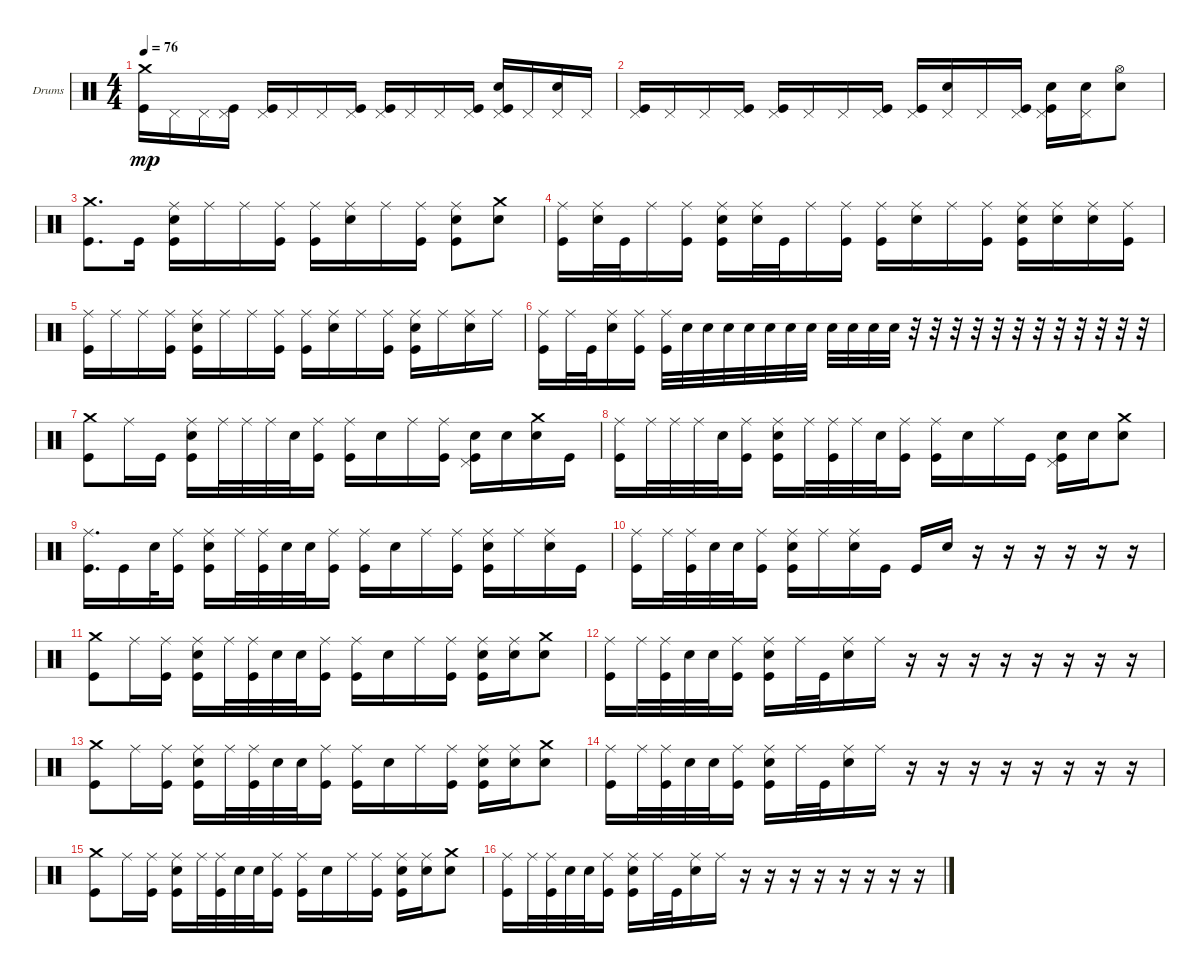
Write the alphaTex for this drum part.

\bracketExtendMode groupsimilarinstruments
\firstSystemTrackNameOrientation horizontal
\otherSystemsTrackNameOrientation horizontal
\track ("Drumkit" "Drums") {instrument percussion}
\staff {score}
\articulation defaults
\ts (4 4)
\tempo 76
\clef neutral
\ks c
("Kick (hit)" "Crash medium (hit)").16{dy mp} "Pedal Hi-Hat (hit)".16 "Pedal Hi-Hat (hit)".16 ("Pedal Hi-Hat (hit)" "Kick (hit)").16 ("Pedal Hi-Hat (hit)" "Kick (hit)").16 "Pedal Hi-Hat (hit)".16 "Pedal Hi-Hat (hit)".16 ("Pedal Hi-Hat (hit)" "Kick (hit)").16 ("Pedal Hi-Hat (hit)" "Kick (hit)").16 "Pedal Hi-Hat (hit)".16 "Pedal Hi-Hat (hit)".16 ("Pedal Hi-Hat (hit)" "Kick (hit)").16 ("Pedal Hi-Hat (hit)" "Kick (hit)" "Snare (hit) 2").16 "Pedal Hi-Hat (hit)".16 ("Pedal Hi-Hat (hit)" "Snare (hit) 2").16 "Pedal Hi-Hat (hit)".16 |
("Kick (hit)" "Pedal Hi-Hat (hit)").16 "Pedal Hi-Hat (hit)".16 "Pedal Hi-Hat (hit)".16 ("Pedal Hi-Hat (hit)" "Kick (hit)").16 ("Pedal Hi-Hat (hit)" "Kick (hit)").16 "Pedal Hi-Hat (hit)".16 "Pedal Hi-Hat (hit)".16 ("Pedal Hi-Hat (hit)" "Kick (hit)").16 ("Pedal Hi-Hat (hit)" "Kick (hit)").16 ("Pedal Hi-Hat (hit)" "Snare (hit) 2").16 "Pedal Hi-Hat (hit)".16 ("Pedal Hi-Hat (hit)" "Kick (hit)").16 ("Pedal Hi-Hat (hit)" "Kick (hit)" "Snare (hit) 2").16 ("Pedal Hi-Hat (hit)" "Snare (hit) 2").16 ("Snare (hit) 2" "Hi-Hat (open)").8 |
("Kick (hit)" "Crash medium (hit)").8{d} "Kick (hit)".16 ("Kick (hit)" "Snare (hit) 2" "Ride (middle)").16 "Ride (middle)".16 "Ride (middle)".16 ("Kick (hit)" "Ride (middle)").16 ("Kick (hit)" "Ride (middle)").16 ("Snare (hit) 2" "Ride (middle)").16 "Ride (middle)".16 ("Kick (hit)" "Ride (middle)").16 ("Kick (hit)" "Snare (hit) 2" "Ride (middle)").8 ("Snare (hit) 2" "Crash medium (hit)").8 |
("Kick (hit)" "Ride (middle)").16 ("Snare (hit) 2" "Ride (middle)").32 "Kick (hit)".32 "Ride (middle)".16 ("Kick (hit)" "Ride (middle)").16 ("Kick (hit)" "Snare (hit) 2" "Ride (middle)").16 ("Snare (hit) 2" "Ride (middle)").32 "Kick (hit)".32 "Ride (middle)".16 ("Kick (hit)" "Ride (middle)").16 ("Kick (hit)" "Ride (middle)").16 ("Snare (hit) 2" "Ride (middle)").16 "Ride (middle)".16 ("Kick (hit)" "Ride (middle)").16 ("Kick (hit)" "Snare (hit) 2" "Ride (middle)").16 ("Snare (hit) 2" "Ride (middle)").16 ("Snare (hit) 2" "Ride (middle)").16 ("Kick (hit)" "Ride (middle)").16 |
("Kick (hit)" "Ride (middle)").16 "Ride (middle)".16 "Ride (middle)".16 ("Kick (hit)" "Ride (middle)").16 ("Kick (hit)" "Snare (hit) 2" "Ride (middle)").16 "Ride (middle)".16 "Ride (middle)".16 ("Kick (hit)" "Ride (middle)").16 ("Kick (hit)" "Ride (middle)").16 ("Snare (hit) 2" "Ride (middle)").16 "Ride (middle)".16 ("Kick (hit)" "Ride (middle)").16 ("Kick (hit)" "Snare (hit) 2" "Ride (middle)").16 "Ride (middle)".16 ("Snare (hit) 2" "Ride (middle)").16 "Ride (middle)".16 |
("Ride (middle)" "Kick (hit)").16 "Ride (middle)".32 "Kick (hit)".32 ("Ride (middle)" "Snare (hit) 2").16 ("Ride (middle)" "Kick (hit)").16 ("Kick (hit)" "Ride (middle)").32 "Snare (hit) 2".32 "Snare (hit) 2".32 "Snare (hit) 2".32 "Snare (hit) 2".32 "Snare (hit) 2".32 "Snare (hit) 2".32 "Snare (hit) 2".32 "Snare (hit) 2".32 "Snare (hit) 2".32 "Snare (hit) 2".32 "Snare (hit) 2".32 r.32 r.32 r.32 r.32 r.32 r.32 r.32 r.32 r.32 r.32 r.32 r.32 |
("Kick (hit)" "Crash medium (hit)").8 "Ride (middle)".16 "Kick (hit)".16 ("Kick (hit)" "Ride (middle)" "Snare (hit) 2").16 "Ride (middle)".32 "Ride (middle)".32 "Ride (middle)".32 "Snare (hit) 2".32 ("Kick (hit)" "Ride (middle)").16 ("Kick (hit)" "Ride (middle)").16 "Snare (hit) 2".16 "Ride (middle)".16 ("Kick (hit)" "Ride (middle)").16 ("Kick (hit)" "Snare (hit) 2" "Pedal Hi-Hat (hit)").16 "Snare (hit) 2".16 ("Snare (hit) 2" "Crash medium (hit)").16 "Kick (hit)".16 |
("Kick (hit)" "Ride (middle)").16 "Ride (middle)".32 "Ride (middle)".32 "Ride (middle)".32 "Snare (hit) 2".32 ("Kick (hit)" "Ride (middle)").16 ("Kick (hit)" "Snare (hit) 2" "Ride (middle)").16 "Ride (middle)".32 ("Kick (hit)" "Ride (middle)").32 "Ride (middle)".32 "Snare (hit) 2".32 ("Kick (hit)" "Ride (middle)").16 ("Kick (hit)" "Ride (middle)").16 "Snare (hit) 2".16 "Ride (middle)".16 "Kick (hit)".16 ("Kick (hit)" "Snare (hit) 2" "Pedal Hi-Hat (hit)").16 "Snare (hit) 2".16 ("Snare (hit) 2" "Crash medium (hit)").8 |
("Kick (hit)" "Ride (middle)").16{d} "Kick (hit)".16 "Snare (hit) 2".32 ("Kick (hit)" "Ride (middle)").16 ("Snare (hit) 2" "Kick (hit)" "Ride (middle)").16 "Ride (middle)".32 ("Kick (hit)" "Ride (middle)").32 "Snare (hit) 2".32 "Snare (hit) 2".32 ("Kick (hit)" "Ride (middle)").16 ("Kick (hit)" "Ride (middle)").16 "Snare (hit) 2".16 "Ride (middle)".16 ("Kick (hit)" "Ride (middle)").16 ("Kick (hit)" "Ride (middle)" "Snare (hit) 2").16 "Ride (middle)".16 ("Ride (middle)" "Snare (hit) 2").16 "Kick (hit)".16 |
("Ride (middle)" "Kick (hit)").16 "Ride (middle)".32 ("Kick (hit)" "Ride (middle)").32 "Snare (hit) 2".32 "Snare (hit) 2".32 ("Kick (hit)" "Ride (middle)").16 ("Snare (hit) 2" "Ride (middle)" "Kick (hit)").16 "Ride (middle)".16 ("Ride (middle)" "Snare (hit) 2").16 "Kick (hit)".16 "Kick (hit)".16 "Snare (hit) 2".16 r.16 r.16 r.16 r.16 r.16 r.16 |
("Kick (hit)" "Crash medium (hit)").8 "Ride (middle)".16 ("Kick (hit)" "Ride (middle)").16 ("Snare (hit) 2" "Kick (hit)" "Ride (middle)").16 "Ride (middle)".32 ("Kick (hit)" "Ride (middle)").32 "Snare (hit) 2".32 "Snare (hit) 2".32 ("Kick (hit)" "Ride (middle)").16 ("Kick (hit)" "Ride (middle)").16 "Snare (hit) 2".16 "Ride (middle)".16 ("Kick (hit)" "Ride (middle)").16 ("Kick (hit)" "Snare (hit) 2" "Ride (middle)").16 ("Snare (hit) 2" "Ride (middle)").16 ("Snare (hit) 2" "Crash medium (hit)").8 |
("Kick (hit)" "Ride (middle)").16 "Ride (middle)".32 ("Kick (hit)" "Ride (middle)").32 "Snare (hit) 2".32 "Snare (hit) 2".32 ("Kick (hit)" "Ride (middle)").16 ("Ride (middle)" "Kick (hit)" "Snare (hit) 2").16 "Ride (middle)".32 "Kick (hit)".32 ("Ride (middle)" "Snare (hit) 2").16 "Ride (middle)".16 r.16 r.16 r.16 r.16 r.16 r.16 r.16 r.16 |
("Crash medium (hit)" "Kick (hit)").8 "Ride (middle)".16 ("Kick (hit)" "Ride (middle)").16 ("Snare (hit) 2" "Kick (hit)" "Ride (middle)").16 "Ride (middle)".32 ("Kick (hit)" "Ride (middle)").32 "Snare (hit) 2".32 "Snare (hit) 2".32 ("Kick (hit)" "Ride (middle)").16 ("Kick (hit)" "Ride (middle)").16 "Snare (hit) 2".16 "Ride (middle)".16 ("Kick (hit)" "Ride (middle)").16 ("Kick (hit)" "Snare (hit) 2" "Ride (middle)").16 ("Snare (hit) 2" "Ride (middle)").16 ("Snare (hit) 2" "Crash medium (hit)").8 |
("Ride (middle)" "Kick (hit)").16 "Ride (middle)".32 ("Kick (hit)" "Ride (middle)").32 "Snare (hit) 2".32 "Snare (hit) 2".32 ("Kick (hit)" "Ride (middle)").16 ("Ride (middle)" "Kick (hit)" "Snare (hit) 2").16 "Ride (middle)".32 "Kick (hit)".32 ("Ride (middle)" "Snare (hit) 2").16 "Ride (middle)".16 r.16 r.16 r.16 r.16 r.16 r.16 r.16 r.16 |
("Crash medium (hit)" "Kick (hit)").8 "Ride (middle)".16 ("Kick (hit)" "Ride (middle)").16 ("Snare (hit) 2" "Kick (hit)" "Ride (middle)").16 "Ride (middle)".32 ("Kick (hit)" "Ride (middle)").32 "Snare (hit) 2".32 "Snare (hit) 2".32 ("Kick (hit)" "Ride (middle)").16 ("Kick (hit)" "Ride (middle)").16 "Snare (hit) 2".16 "Ride (middle)".16 ("Kick (hit)" "Ride (middle)").16 ("Kick (hit)" "Snare (hit) 2" "Ride (middle)").16 ("Snare (hit) 2" "Ride (middle)").16 ("Snare (hit) 2" "Crash medium (hit)").8 |
("Ride (middle)" "Kick (hit)").16 "Ride (middle)".32 ("Kick (hit)" "Ride (middle)").32 "Snare (hit) 2".32 "Snare (hit) 2".32 ("Kick (hit)" "Ride (middle)").16 ("Ride (middle)" "Kick (hit)" "Snare (hit) 2").16 "Ride (middle)".32 "Kick (hit)".32 ("Ride (middle)" "Snare (hit) 2").16 "Ride (middle)".16 r.16 r.16 r.16 r.16 r.16 r.16 r.16 r.16
